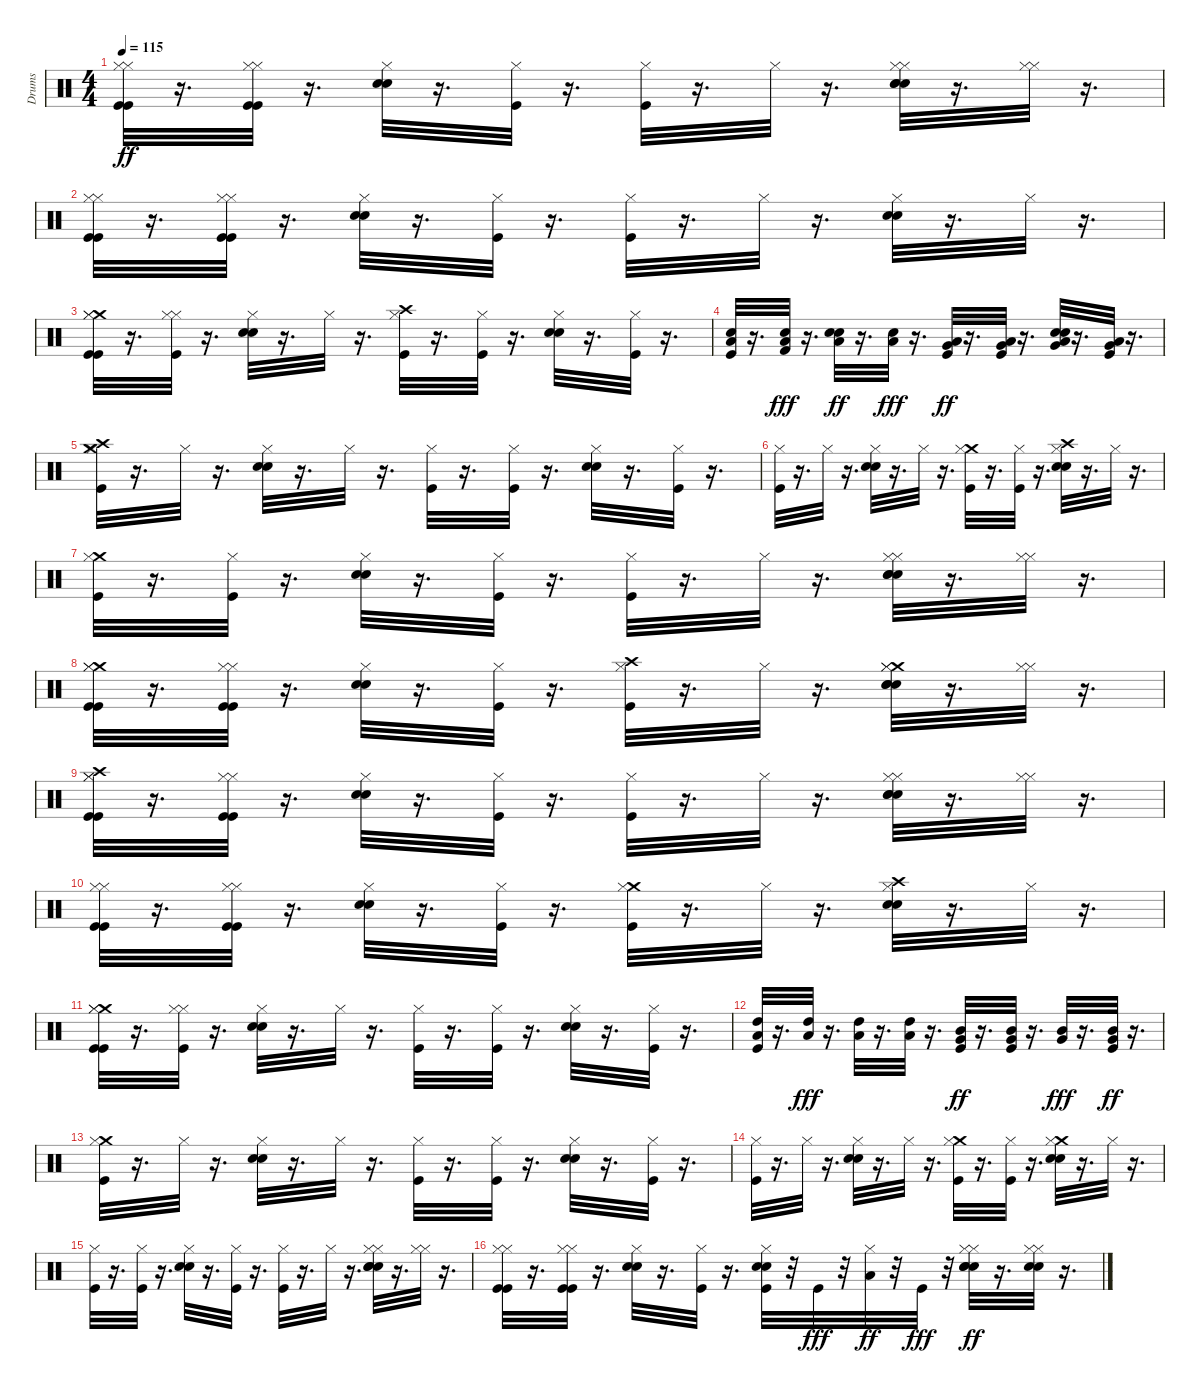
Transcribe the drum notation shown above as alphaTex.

\track ("Drums" "Drums") {instrument percussion}
\staff {score}
\articulation defaults
\ts (4 4)
\tempo 115
\clef neutral
\ks c
("Kick (hit)" "Hi-Hat (closed)" "Kick (hit)" "Hi-Hat (closed)").32{dy ff} r.16{d} ("Kick (hit)" "Hi-Hat (closed)" "Kick (hit)" "Hi-Hat (closed)").32 r.16{d} ("Electric Snare (hit)" "Hi-Hat (closed)" "Snare (hit) 2").32 r.16{d} ("Kick (hit)" "Hi-Hat (closed)").32 r.16{d} ("Kick (hit)" "Hi-Hat (closed)").32 r.16{d} "Hi-Hat (closed)".32 r.16{d} ("Electric Snare (hit)" "Snare (hit) 2" "Hi-Hat (closed)" "Snare (hit) 2" "Hi-Hat (closed)").32 r.16{d} ("Hi-Hat (closed)" "Hi-Hat (closed)").32 r.16{d} |
("Kick (hit)" "Hi-Hat (closed)" "Kick (hit)" "Hi-Hat (closed)").32 r.16{d} ("Kick (hit)" "Hi-Hat (closed)" "Kick (hit)" "Hi-Hat (closed)").32 r.16{d} ("Electric Snare (hit)" "Hi-Hat (closed)" "Snare (hit) 2").32 r.16{d} ("Kick (hit)" "Hi-Hat (closed)").32 r.16{d} ("Kick (hit)" "Hi-Hat (closed)").32 r.16{d} "Hi-Hat (closed)".32 r.16{d} ("Electric Snare (hit)" "Snare (hit) 2" "Hi-Hat (closed)").32 r.16{d} "Hi-Hat (closed)".32 r.16{d} |
("Crash medium (hit)" "Kick (hit)" "Hi-Hat (closed)" "Kick (hit)" "Hi-Hat (closed)").32 r.16{d} ("Kick (hit)" "Hi-Hat (closed)" "Hi-Hat (closed)").32 r.16{d} ("Electric Snare (hit)" "Snare (hit) 2" "Hi-Hat (closed)").32 r.16{d} "Hi-Hat (closed)".32 r.16{d} ("Crash high (hit)" "Kick (hit)" "Hi-Hat (closed)").32 r.16{d} ("Kick (hit)" "Hi-Hat (closed)").32 r.16{d} ("Electric Snare (hit)" "Hi-Hat (closed)" "Snare (hit) 2").32 r.16{d} ("Kick (hit)" "Hi-Hat (closed)").32 r.16{d} |
("Electric Snare (hit)" "Low Tom (hit)" "Kick (hit)").32 r.16{d} ("Kick (hit) 2" "Electric Snare (hit)" "Low Tom (hit)").32{dy fff} r.16{d} ("Low Tom (hit)" "Electric Snare (hit)" "Snare (hit) 2").32{dy ff} r.16{d} ("Electric Snare (hit)" "Low Tom (hit)").32{dy fff} r.16{d} ("Low Floor Tom (hit)" "Very Low Tom (hit)" "Kick (hit)").32{dy ff} r.16{d} ("Low Floor Tom (hit)" "Very Low Tom (hit)" "Kick (hit)").32 r.16{d} ("Low Floor Tom (hit)" "Very Low Tom (hit)" "Electric Snare (hit)" "Snare (hit) 2").32 r.16{d} ("Low Floor Tom (hit)" "Very Low Tom (hit)" "Kick (hit)").32 r.16{d} |
("Crash medium (hit)" "Crash high (hit)" "Kick (hit)" "Hi-Hat (closed)").32 r.16{d} "Hi-Hat (closed)".32 r.16{d} ("Electric Snare (hit)" "Snare (hit) 2" "Hi-Hat (closed)").32 r.16{d} "Hi-Hat (closed)".32 r.16{d} ("Kick (hit)" "Hi-Hat (closed)").32 r.16{d} ("Kick (hit)" "Hi-Hat (closed)").32 r.16{d} ("Electric Snare (hit)" "Hi-Hat (closed)" "Snare (hit) 2").32 r.16{d} ("Kick (hit)" "Hi-Hat (closed)").32 r.16{d} |
("Kick (hit)" "Hi-Hat (closed)").32 r.16{d} "Hi-Hat (closed)".32 r.16{d} ("Electric Snare (hit)" "Snare (hit) 2" "Hi-Hat (closed)").32 r.16{d} "Hi-Hat (closed)".32 r.16{d} ("Crash medium (hit)" "Kick (hit)" "Hi-Hat (closed)").32 r.16{d} ("Kick (hit)" "Hi-Hat (closed)").32 r.16{d} ("Crash high (hit)" "Electric Snare (hit)" "Snare (hit) 2" "Hi-Hat (closed)").32 r.16{d} "Hi-Hat (closed)".32 r.16{d} |
("Crash medium (hit)" "Kick (hit)" "Hi-Hat (closed)").32 r.16{d} ("Kick (hit)" "Hi-Hat (closed)").32 r.16{d} ("Electric Snare (hit)" "Hi-Hat (closed)" "Snare (hit) 2").32 r.16{d} ("Kick (hit)" "Hi-Hat (closed)").32 r.16{d} ("Kick (hit)" "Hi-Hat (closed)").32 r.16{d} "Hi-Hat (closed)".32 r.16{d} ("Electric Snare (hit)" "Snare (hit) 2" "Hi-Hat (closed)" "Snare (hit) 2" "Hi-Hat (closed)").32 r.16{d} ("Hi-Hat (closed)" "Hi-Hat (closed)").32 r.16{d} |
("Crash medium (hit)" "Kick (hit)" "Hi-Hat (closed)" "Kick (hit)" "Hi-Hat (closed)").32 r.16{d} ("Kick (hit)" "Hi-Hat (closed)" "Kick (hit)" "Hi-Hat (closed)").32 r.16{d} ("Electric Snare (hit)" "Hi-Hat (closed)" "Snare (hit) 2").32 r.16{d} ("Kick (hit)" "Hi-Hat (closed)").32 r.16{d} ("Crash high (hit)" "Kick (hit)" "Hi-Hat (closed)").32 r.16{d} "Hi-Hat (closed)".32 r.16{d} ("Crash medium (hit)" "Electric Snare (hit)" "Snare (hit) 2" "Hi-Hat (closed)" "Snare (hit) 2" "Hi-Hat (closed)").32 r.16{d} ("Hi-Hat (closed)" "Hi-Hat (closed)").32 r.16{d} |
("Crash high (hit)" "Kick (hit)" "Hi-Hat (closed)" "Kick (hit)" "Hi-Hat (closed)").32 r.16{d} ("Kick (hit)" "Hi-Hat (closed)" "Kick (hit)" "Hi-Hat (closed)").32 r.16{d} ("Electric Snare (hit)" "Hi-Hat (closed)" "Snare (hit) 2").32 r.16{d} ("Kick (hit)" "Hi-Hat (closed)").32 r.16{d} ("Kick (hit)" "Hi-Hat (closed)").32 r.16{d} "Hi-Hat (closed)".32 r.16{d} ("Electric Snare (hit)" "Snare (hit) 2" "Hi-Hat (closed)" "Snare (hit) 2" "Hi-Hat (closed)").32 r.16{d} ("Hi-Hat (closed)" "Hi-Hat (closed)").32 r.16{d} |
("Kick (hit)" "Hi-Hat (closed)" "Kick (hit)" "Hi-Hat (closed)").32 r.16{d} ("Kick (hit)" "Hi-Hat (closed)" "Kick (hit)" "Hi-Hat (closed)").32 r.16{d} ("Electric Snare (hit)" "Hi-Hat (closed)" "Snare (hit) 2").32 r.16{d} ("Kick (hit)" "Hi-Hat (closed)").32 r.16{d} ("Crash medium (hit)" "Kick (hit)" "Hi-Hat (closed)").32 r.16{d} "Hi-Hat (closed)".32 r.16{d} ("Crash high (hit)" "Electric Snare (hit)" "Snare (hit) 2" "Hi-Hat (closed)").32 r.16{d} "Hi-Hat (closed)".32 r.16{d} |
("Crash medium (hit)" "Kick (hit)" "Hi-Hat (closed)" "Kick (hit)" "Hi-Hat (closed)").32 r.16{d} ("Kick (hit)" "Hi-Hat (closed)" "Hi-Hat (closed)").32 r.16{d} ("Electric Snare (hit)" "Snare (hit) 2" "Hi-Hat (closed)").32 r.16{d} "Hi-Hat (closed)".32 r.16{d} ("Kick (hit)" "Hi-Hat (closed)").32 r.16{d} ("Kick (hit)" "Hi-Hat (closed)").32 r.16{d} ("Electric Snare (hit)" "Hi-Hat (closed)" "Snare (hit) 2").32 r.16{d} ("Kick (hit)" "Hi-Hat (closed)").32 r.16{d} |
("Low Tom (hit)" "High Tom (hit)" "Kick (hit)").32 r.16{d} ("Low Tom (hit)" "High Tom (hit)").32{dy fff} r.16{d} ("Low Tom (hit)" "High Tom (hit)").32 r.16{d} ("Low Tom (hit)" "High Tom (hit)").32 r.16{d} ("Very Low Tom (hit)" "Mid Tom (hit)" "Kick (hit)").32{dy ff} r.16{d} ("Very Low Tom (hit)" "Mid Tom (hit)" "Kick (hit)").32 r.16{d} ("Very Low Tom (hit)" "Mid Tom (hit)").32{dy fff} r.16{d} ("Very Low Tom (hit)" "Mid Tom (hit)" "Kick (hit)").32{dy ff} r.16{d} |
("Crash medium (hit)" "Kick (hit)" "Hi-Hat (closed)").32 r.16{d} "Hi-Hat (closed)".32 r.16{d} ("Electric Snare (hit)" "Snare (hit) 2" "Hi-Hat (closed)").32 r.16{d} "Hi-Hat (closed)".32 r.16{d} ("Kick (hit)" "Hi-Hat (closed)").32 r.16{d} ("Kick (hit)" "Hi-Hat (closed)").32 r.16{d} ("Electric Snare (hit)" "Hi-Hat (closed)" "Snare (hit) 2").32 r.16{d} ("Kick (hit)" "Hi-Hat (closed)").32 r.16{d} |
("Kick (hit)" "Hi-Hat (closed)").32 r.16{d} "Hi-Hat (closed)".32 r.16{d} ("Electric Snare (hit)" "Snare (hit) 2" "Hi-Hat (closed)").32 r.16{d} "Hi-Hat (closed)".32 r.16{d} ("Crash medium (hit)" "Kick (hit)" "Hi-Hat (closed)").32 r.16{d} ("Kick (hit)" "Hi-Hat (closed)").32 r.16{d} ("Crash medium (hit)" "Electric Snare (hit)" "Snare (hit) 2" "Hi-Hat (closed)").32 r.16{d} "Hi-Hat (closed)".32 r.16{d} |
("Kick (hit)" "Hi-Hat (closed)").32 r.16{d} ("Kick (hit)" "Hi-Hat (closed)").32 r.16{d} ("Electric Snare (hit)" "Hi-Hat (closed)" "Snare (hit) 2").32 r.16{d} ("Kick (hit)" "Hi-Hat (closed)").32 r.16{d} ("Kick (hit)" "Hi-Hat (closed)").32 r.16{d} "Hi-Hat (closed)".32 r.16{d} ("Electric Snare (hit)" "Snare (hit) 2" "Hi-Hat (closed)" "Snare (hit) 2" "Hi-Hat (closed)").32 r.16{d} ("Hi-Hat (closed)" "Hi-Hat (closed)").32 r.16{d} |
("Kick (hit)" "Hi-Hat (closed)" "Kick (hit)" "Hi-Hat (closed)").32 r.16{d} ("Kick (hit)" "Hi-Hat (closed)" "Kick (hit)" "Hi-Hat (closed)").32 r.16{d} ("Electric Snare (hit)" "Hi-Hat (closed)" "Snare (hit) 2").32 r.16{d} ("Kick (hit)" "Hi-Hat (closed)").32 r.16{d} ("Snare (hit) 2" "Electric Snare (hit)" "Kick (hit)" "Hi-Hat (closed)").32 r.32 "Kick (hit)".32{dy fff} r.32 ("Low Floor Tom (hit)" "Hi-Hat (closed)").32{dy ff} r.32 "Kick (hit)".32{dy fff} r.32 ("Electric Snare (hit)" "Snare (hit) 2" "Hi-Hat (closed)" "Snare (hit) 2" "Hi-Hat (closed)").32{dy ff} r.16{d} ("Snare (hit) 2" "Electric Snare (hit)" "Hi-Hat (closed)" "Hi-Hat (closed)").32 r.16{d}
